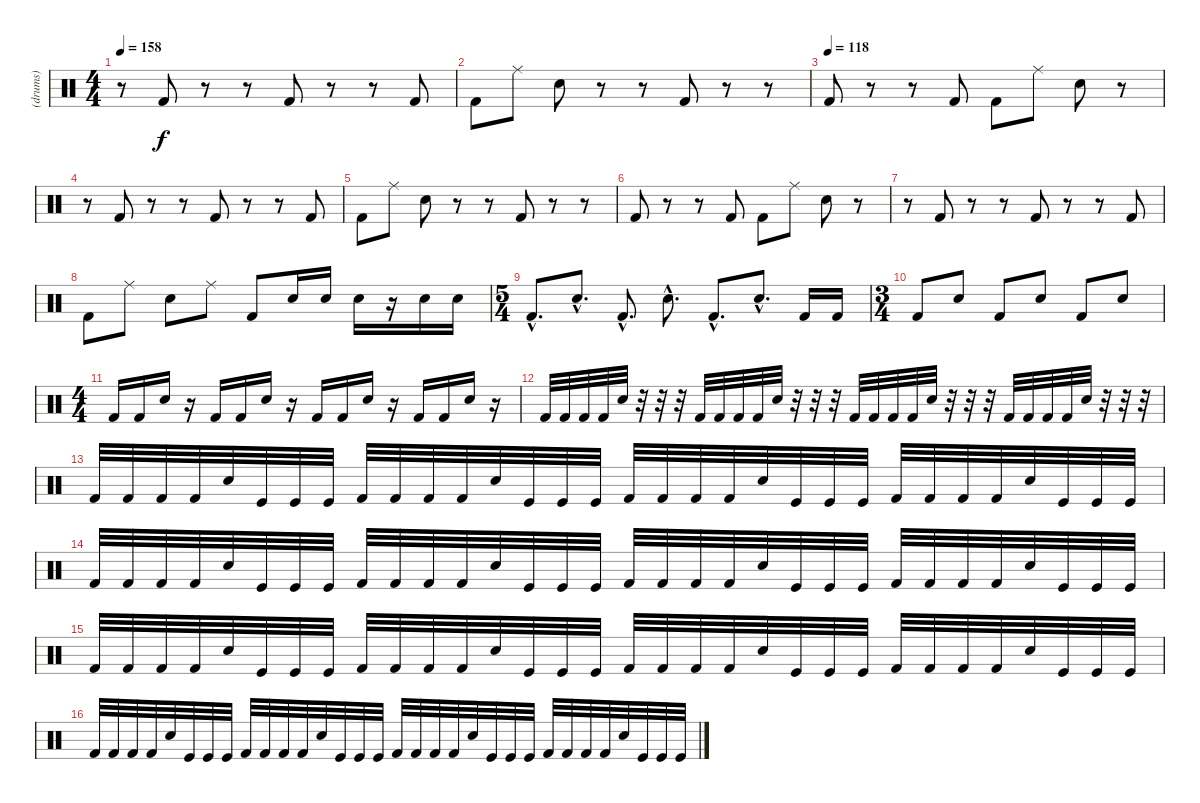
\track ("(drums)" "(drums)") {instrument percussion}
\staff {score}
\articulation defaults
\ts (4 4)
\tempo 158
\clef neutral
\ks c
r.8{dy f} "Kick (hit) 2".8 r.8 r.8 "Kick (hit) 2".8 r.8 r.8 "Kick (hit) 2".8 |
"Kick (hit) 2".8 "Ride (middle)".8 "Snare (hit) 2".8 r.8 r.8 "Kick (hit) 2".8 r.8 r.8 |
\tempo (118)
"Kick (hit) 2".8 r.8 r.8 "Kick (hit) 2".8 "Kick (hit) 2".8 "Ride (middle)".8 "Snare (hit) 2".8 r.8 |
r.8 "Kick (hit) 2".8 r.8 r.8 "Kick (hit) 2".8 r.8 r.8 "Kick (hit) 2".8 |
"Kick (hit) 2".8 "Ride (middle)".8 "Snare (hit) 2".8 r.8 r.8 "Kick (hit) 2".8 r.8 r.8 |
"Kick (hit) 2".8 r.8 r.8 "Kick (hit) 2".8 "Kick (hit) 2".8 "Ride (middle)".8 "Snare (hit) 2".8 r.8 |
r.8 "Kick (hit) 2".8 r.8 r.8 "Kick (hit) 2".8 r.8 r.8 "Kick (hit) 2".8 |
"Kick (hit) 2".8 "Ride (middle)".8 "Snare (hit) 2".8 "Ride (middle)".8 "Kick (hit) 2".8 "Snare (hit) 2".16 "Snare (hit) 2".16 "Snare (hit) 2".16 r.16 "Snare (hit) 2".16 "Snare (hit) 2".16 |
\ts (5 4)
"Kick (hit) 2"{hac}.8{d} "Snare (hit) 2"{hac}.8{d} "Kick (hit) 2"{hac}.8{d} "Snare (hit) 2"{hac}.8{d} "Kick (hit) 2"{hac}.8{d} "Snare (hit) 2"{hac}.8{d} "Kick (hit) 2".16 "Kick (hit) 2".16 |
\ts (3 4)
"Kick (hit) 2".8 "Snare (hit) 2".8 "Kick (hit) 2".8 "Snare (hit) 2".8 "Kick (hit) 2".8 "Snare (hit) 2".8 |
\ts (4 4)
"Kick (hit) 2".16 "Kick (hit) 2".16 "Snare (hit) 2".16 r.16 "Kick (hit) 2".16 "Kick (hit) 2".16 "Snare (hit) 2".16 r.16 "Kick (hit) 2".16 "Kick (hit) 2".16 "Snare (hit) 2".16 r.16 "Kick (hit) 2".16 "Kick (hit) 2".16 "Snare (hit) 2".16 r.16 |
"Kick (hit) 2".32 "Kick (hit) 2".32 "Kick (hit) 2".32 "Kick (hit) 2".32 "Snare (hit) 2".32 r.32 r.32 r.32 "Kick (hit) 2".32 "Kick (hit) 2".32 "Kick (hit) 2".32 "Kick (hit) 2".32 "Snare (hit) 2".32 r.32 r.32 r.32 "Kick (hit) 2".32 "Kick (hit) 2".32 "Kick (hit) 2".32 "Kick (hit) 2".32 "Snare (hit) 2".32 r.32 r.32 r.32 "Kick (hit) 2".32 "Kick (hit) 2".32 "Kick (hit) 2".32 "Kick (hit) 2".32 "Snare (hit) 2".32 r.32 r.32 r.32 |
"Kick (hit) 2".32 "Kick (hit) 2".32 "Kick (hit) 2".32 "Kick (hit) 2".32 "Snare (hit) 2".32 "Kick (hit)".32 "Kick (hit)".32 "Kick (hit)".32 "Kick (hit) 2".32 "Kick (hit) 2".32 "Kick (hit) 2".32 "Kick (hit) 2".32 "Snare (hit) 2".32 "Kick (hit)".32 "Kick (hit)".32 "Kick (hit)".32 "Kick (hit) 2".32 "Kick (hit) 2".32 "Kick (hit) 2".32 "Kick (hit) 2".32 "Snare (hit) 2".32 "Kick (hit)".32 "Kick (hit)".32 "Kick (hit)".32 "Kick (hit) 2".32 "Kick (hit) 2".32 "Kick (hit) 2".32 "Kick (hit) 2".32 "Snare (hit) 2".32 "Kick (hit)".32 "Kick (hit)".32 "Kick (hit)".32 |
"Kick (hit) 2".32 "Kick (hit) 2".32 "Kick (hit) 2".32 "Kick (hit) 2".32 "Snare (hit) 2".32 "Kick (hit)".32 "Kick (hit)".32 "Kick (hit)".32 "Kick (hit) 2".32 "Kick (hit) 2".32 "Kick (hit) 2".32 "Kick (hit) 2".32 "Snare (hit) 2".32 "Kick (hit)".32 "Kick (hit)".32 "Kick (hit)".32 "Kick (hit) 2".32 "Kick (hit) 2".32 "Kick (hit) 2".32 "Kick (hit) 2".32 "Snare (hit) 2".32 "Kick (hit)".32 "Kick (hit)".32 "Kick (hit)".32 "Kick (hit) 2".32 "Kick (hit) 2".32 "Kick (hit) 2".32 "Kick (hit) 2".32 "Snare (hit) 2".32 "Kick (hit)".32 "Kick (hit)".32 "Kick (hit)".32 |
"Kick (hit) 2".32 "Kick (hit) 2".32 "Kick (hit) 2".32 "Kick (hit) 2".32 "Snare (hit) 2".32 "Kick (hit)".32 "Kick (hit)".32 "Kick (hit)".32 "Kick (hit) 2".32 "Kick (hit) 2".32 "Kick (hit) 2".32 "Kick (hit) 2".32 "Snare (hit) 2".32 "Kick (hit)".32 "Kick (hit)".32 "Kick (hit)".32 "Kick (hit) 2".32 "Kick (hit) 2".32 "Kick (hit) 2".32 "Kick (hit) 2".32 "Snare (hit) 2".32 "Kick (hit)".32 "Kick (hit)".32 "Kick (hit)".32 "Kick (hit) 2".32 "Kick (hit) 2".32 "Kick (hit) 2".32 "Kick (hit) 2".32 "Snare (hit) 2".32 "Kick (hit)".32 "Kick (hit)".32 "Kick (hit)".32 |
"Kick (hit) 2".32 "Kick (hit) 2".32 "Kick (hit) 2".32 "Kick (hit) 2".32 "Snare (hit) 2".32 "Kick (hit)".32 "Kick (hit)".32 "Kick (hit)".32 "Kick (hit) 2".32 "Kick (hit) 2".32 "Kick (hit) 2".32 "Kick (hit) 2".32 "Snare (hit) 2".32 "Kick (hit)".32 "Kick (hit)".32 "Kick (hit)".32 "Kick (hit) 2".32 "Kick (hit) 2".32 "Kick (hit) 2".32 "Kick (hit) 2".32 "Snare (hit) 2".32 "Kick (hit)".32 "Kick (hit)".32 "Kick (hit)".32 "Kick (hit) 2".32 "Kick (hit) 2".32 "Kick (hit) 2".32 "Kick (hit) 2".32 "Snare (hit) 2".32 "Kick (hit)".32 "Kick (hit)".32 "Kick (hit)".32
